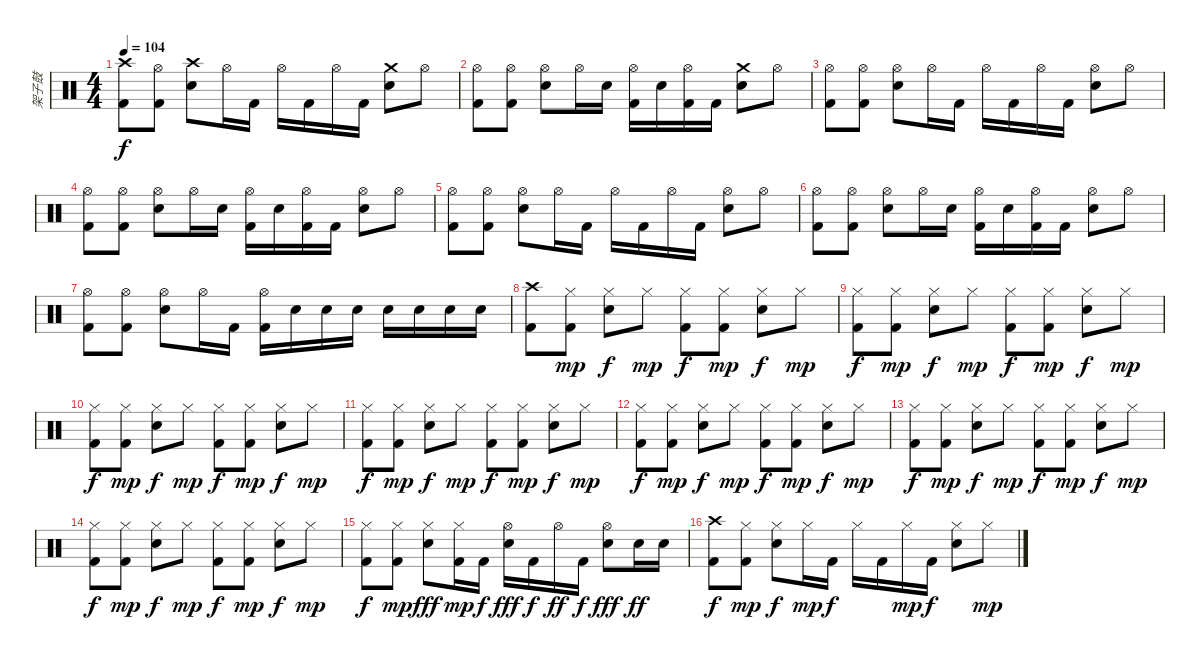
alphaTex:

\track ("架子鼓" "架子鼓") {instrument percussion}
\staff {score}
\articulation defaults
\ts (4 4)
\tempo 104
\clef neutral
\ks c
("Crash high (hit)" "Kick (hit) 2").8{dy f} ("Hi-Hat (open)" "Kick (hit) 2").8 ("Crash high (hit)" "Electric Snare (hit)").8 "Hi-Hat (open)".16 "Kick (hit) 2".16 "Hi-Hat (open)".16 "Kick (hit) 2".16 "Hi-Hat (open)".16 "Kick (hit) 2".16 ("Crash medium (hit)" "Electric Snare (hit)").8 "Hi-Hat (open)".8 |
("Hi-Hat (open)" "Kick (hit) 2").8 ("Hi-Hat (open)" "Kick (hit) 2").8 ("Hi-Hat (open)" "Electric Snare (hit)").8 "Hi-Hat (open)".16 "Electric Snare (hit)".16 ("Hi-Hat (open)" "Kick (hit) 2").16 "Electric Snare (hit)".16 ("Hi-Hat (open)" "Kick (hit) 2").16 "Kick (hit) 2".16 ("Crash medium (hit)" "Electric Snare (hit)").8 "Hi-Hat (open)".8 |
("Hi-Hat (open)" "Kick (hit) 2").8 ("Hi-Hat (open)" "Kick (hit) 2").8 ("Hi-Hat (open)" "Electric Snare (hit)").8 "Hi-Hat (open)".16 "Kick (hit) 2".16 "Hi-Hat (open)".16 "Kick (hit) 2".16 "Hi-Hat (open)".16 "Kick (hit) 2".16 ("Hi-Hat (open)" "Electric Snare (hit)").8 "Hi-Hat (open)".8 |
("Hi-Hat (open)" "Kick (hit) 2").8 ("Hi-Hat (open)" "Kick (hit) 2").8 ("Hi-Hat (open)" "Electric Snare (hit)").8 "Hi-Hat (open)".16 "Electric Snare (hit)".16 ("Hi-Hat (open)" "Kick (hit) 2").16 "Electric Snare (hit)".16 ("Hi-Hat (open)" "Kick (hit) 2").16 "Kick (hit) 2".16 ("Hi-Hat (open)" "Electric Snare (hit)").8 "Hi-Hat (open)".8 |
("Hi-Hat (open)" "Kick (hit) 2").8 ("Hi-Hat (open)" "Kick (hit) 2").8 ("Hi-Hat (open)" "Electric Snare (hit)").8 "Hi-Hat (open)".16 "Kick (hit) 2".16 "Hi-Hat (open)".16 "Kick (hit) 2".16 "Hi-Hat (open)".16 "Kick (hit) 2".16 ("Hi-Hat (open)" "Electric Snare (hit)").8 "Hi-Hat (open)".8 |
("Hi-Hat (open)" "Kick (hit) 2").8 ("Hi-Hat (open)" "Kick (hit) 2").8 ("Hi-Hat (open)" "Electric Snare (hit)").8 "Hi-Hat (open)".16 "Electric Snare (hit)".16 ("Hi-Hat (open)" "Kick (hit) 2").16 "Electric Snare (hit)".16 ("Hi-Hat (open)" "Kick (hit) 2").16 "Kick (hit) 2".16 ("Hi-Hat (open)" "Electric Snare (hit)").8 "Hi-Hat (open)".8 |
("Hi-Hat (open)" "Kick (hit) 2").8 ("Hi-Hat (open)" "Kick (hit) 2").8 ("Hi-Hat (open)" "Electric Snare (hit)").8 "Hi-Hat (open)".16 "Kick (hit) 2".16 ("Hi-Hat (open)" "Kick (hit) 2").16 "Electric Snare (hit)".16 "Electric Snare (hit)".16 "Electric Snare (hit)".16 "Electric Snare (hit)".16 "Electric Snare (hit)".16 "Electric Snare (hit)".16 "Electric Snare (hit)".16 |
("Crash high (hit)" "Kick (hit) 2").8 ("Hi-Hat (closed)" "Kick (hit) 2").8{dy mp} ("Hi-Hat (closed)" "Electric Snare (hit)").8{dy f} "Hi-Hat (closed)".8{dy mp} ("Hi-Hat (closed)" "Kick (hit) 2").8{dy f} ("Hi-Hat (closed)" "Kick (hit) 2").8{dy mp} ("Hi-Hat (closed)" "Electric Snare (hit)").8{dy f} "Hi-Hat (closed)".8{dy mp} |
("Hi-Hat (closed)" "Kick (hit) 2").8{dy f} ("Hi-Hat (closed)" "Kick (hit) 2").8{dy mp} ("Hi-Hat (closed)" "Electric Snare (hit)").8{dy f} "Hi-Hat (closed)".8{dy mp} ("Hi-Hat (closed)" "Kick (hit) 2").8{dy f} ("Hi-Hat (closed)" "Kick (hit) 2").8{dy mp} ("Hi-Hat (closed)" "Electric Snare (hit)").8{dy f} "Hi-Hat (closed)".8{dy mp} |
("Hi-Hat (closed)" "Kick (hit) 2").8{dy f} ("Hi-Hat (closed)" "Kick (hit) 2").8{dy mp} ("Hi-Hat (closed)" "Electric Snare (hit)").8{dy f} "Hi-Hat (closed)".8{dy mp} ("Hi-Hat (closed)" "Kick (hit) 2").8{dy f} ("Hi-Hat (closed)" "Kick (hit) 2").8{dy mp} ("Hi-Hat (closed)" "Electric Snare (hit)").8{dy f} "Hi-Hat (closed)".8{dy mp} |
("Hi-Hat (closed)" "Kick (hit) 2").8{dy f} ("Hi-Hat (closed)" "Kick (hit) 2").8{dy mp} ("Hi-Hat (closed)" "Electric Snare (hit)").8{dy f} "Hi-Hat (closed)".8{dy mp} ("Hi-Hat (closed)" "Kick (hit) 2").8{dy f} ("Hi-Hat (closed)" "Kick (hit) 2").8{dy mp} ("Hi-Hat (closed)" "Electric Snare (hit)").8{dy f} "Hi-Hat (closed)".8{dy mp} |
("Hi-Hat (closed)" "Kick (hit) 2").8{dy f} ("Hi-Hat (closed)" "Kick (hit) 2").8{dy mp} ("Hi-Hat (closed)" "Electric Snare (hit)").8{dy f} "Hi-Hat (closed)".8{dy mp} ("Hi-Hat (closed)" "Kick (hit) 2").8{dy f} ("Hi-Hat (closed)" "Kick (hit) 2").8{dy mp} ("Hi-Hat (closed)" "Electric Snare (hit)").8{dy f} "Hi-Hat (closed)".8{dy mp} |
("Hi-Hat (closed)" "Kick (hit) 2").8{dy f} ("Hi-Hat (closed)" "Kick (hit) 2").8{dy mp} ("Hi-Hat (closed)" "Electric Snare (hit)").8{dy f} "Hi-Hat (closed)".8{dy mp} ("Hi-Hat (closed)" "Kick (hit) 2").8{dy f} ("Hi-Hat (closed)" "Kick (hit) 2").8{dy mp} ("Hi-Hat (closed)" "Electric Snare (hit)").8{dy f} "Hi-Hat (closed)".8{dy mp} |
("Hi-Hat (closed)" "Kick (hit) 2").8{dy f} ("Hi-Hat (closed)" "Kick (hit) 2").8{dy mp} ("Hi-Hat (closed)" "Electric Snare (hit)").8{dy f} "Hi-Hat (closed)".8{dy mp} ("Hi-Hat (closed)" "Kick (hit) 2").8{dy f} ("Hi-Hat (closed)" "Kick (hit) 2").8{dy mp} ("Hi-Hat (closed)" "Electric Snare (hit)").8{dy f} "Hi-Hat (closed)".8{dy mp} |
("Hi-Hat (closed)" "Kick (hit) 2").8{dy f} ("Hi-Hat (closed)" "Kick (hit) 2").8{dy mp} ("Hi-Hat (closed)" "Electric Snare (hit)").8{dy fff} ("Hi-Hat (closed)" "Kick (hit) 2").16{dy mp} "Kick (hit) 2".16{dy f} ("Hi-Hat (open)" "Electric Snare (hit)").16{dy fff} "Kick (hit) 2".16{dy f} "Hi-Hat (open)".16{dy ff} "Kick (hit) 2".16{dy f} ("Hi-Hat (open)" "Electric Snare (hit)").8{dy fff} "Electric Snare (hit)".16{dy ff} "Electric Snare (hit)".16 |
("Crash high (hit)" "Kick (hit) 2").8{dy f} ("Hi-Hat (closed)" "Kick (hit) 2").8{dy mp} ("Hi-Hat (closed)" "Electric Snare (hit)").8{dy f} "Hi-Hat (closed)".16{dy mp} "Kick (hit) 2".16{dy f} "Hi-Hat (closed)".16 "Kick (hit) 2".16 "Hi-Hat (closed)".16{dy mp} "Kick (hit) 2".16{dy f} ("Hi-Hat (closed)" "Electric Snare (hit)").8 "Hi-Hat (closed)".8{dy mp}
